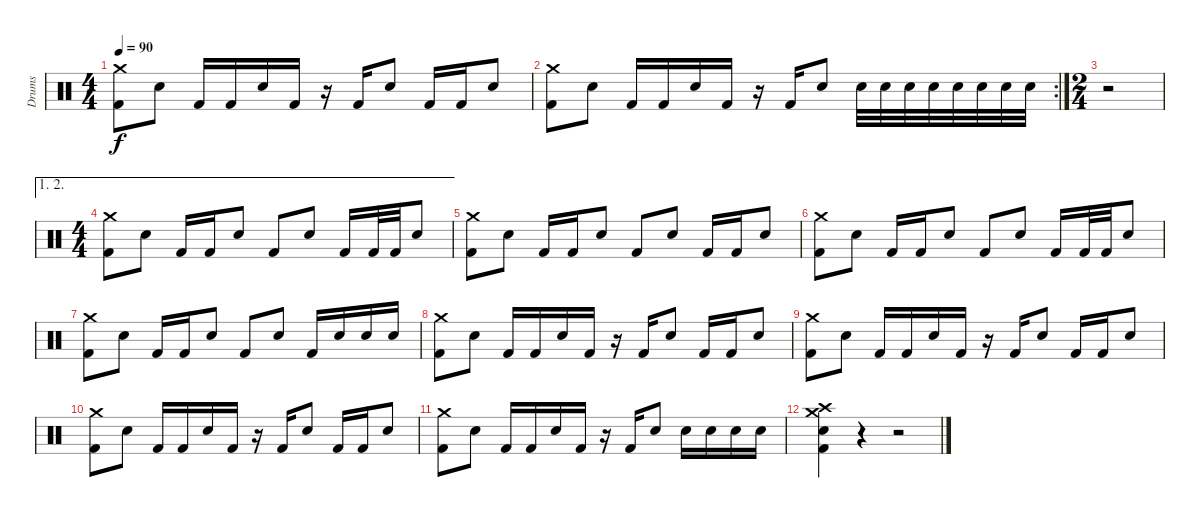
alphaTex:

\track ("Drums" "Drums") {instrument percussion}
\staff {score}
\articulation defaults
\ts (4 4)
\tempo 90
\clef neutral
\ks c
("Crash medium (hit)" "Kick (hit) 2").8{dy f} "Snare (hit) 2".8 "Kick (hit) 2".16 "Kick (hit) 2".16 "Snare (hit) 2".16 "Kick (hit) 2".16 r.16 "Kick (hit) 2".16 "Snare (hit) 2".8 "Kick (hit) 2".16 "Kick (hit) 2".16 "Snare (hit) 2".8 |
\rc 2
("Crash medium (hit)" "Kick (hit) 2").8 "Snare (hit) 2".8 "Kick (hit) 2".16 "Kick (hit) 2".16 "Snare (hit) 2".16 "Kick (hit) 2".16 r.16 "Kick (hit) 2".16 "Snare (hit) 2".8 "Snare (hit) 2".32 "Snare (hit) 2".32 "Snare (hit) 2".32 "Snare (hit) 2".32 "Snare (hit) 2".32 "Snare (hit) 2".32 "Snare (hit) 2".32 "Snare (hit) 2".32 |
\ts (2 4)
r.2 |
\ae (1 2)
\ts (4 4)
("Crash medium (hit)" "Kick (hit) 2").8 "Snare (hit) 2".8 "Kick (hit) 2".16 "Kick (hit) 2".16 "Snare (hit) 2".8 "Kick (hit) 2".8 "Snare (hit) 2".8 "Kick (hit) 2".16 "Kick (hit) 2".32 "Kick (hit) 2".32 "Snare (hit) 2".8 |
("Crash medium (hit)" "Kick (hit) 2").8 "Snare (hit) 2".8 "Kick (hit) 2".16 "Kick (hit) 2".16 "Snare (hit) 2".8 "Kick (hit) 2".8 "Snare (hit) 2".8 "Kick (hit) 2".16 "Kick (hit) 2".16 "Snare (hit) 2".8 |
("Crash medium (hit)" "Kick (hit) 2").8 "Snare (hit) 2".8 "Kick (hit) 2".16 "Kick (hit) 2".16 "Snare (hit) 2".8 "Kick (hit) 2".8 "Snare (hit) 2".8 "Kick (hit) 2".16 "Kick (hit) 2".32 "Kick (hit) 2".32 "Snare (hit) 2".8 |
("Crash medium (hit)" "Kick (hit) 2").8 "Snare (hit) 2".8 "Kick (hit) 2".16 "Kick (hit) 2".16 "Snare (hit) 2".8 "Kick (hit) 2".8 "Snare (hit) 2".8 "Kick (hit) 2".16 "Snare (hit) 2".16 "Snare (hit) 2".16 "Snare (hit) 2".16 |
("Crash medium (hit)" "Kick (hit) 2").8 "Snare (hit) 2".8 "Kick (hit) 2".16 "Kick (hit) 2".16 "Snare (hit) 2".16 "Kick (hit) 2".16 r.16 "Kick (hit) 2".16 "Snare (hit) 2".8 "Kick (hit) 2".16 "Kick (hit) 2".16 "Snare (hit) 2".8 |
("Crash medium (hit)" "Kick (hit) 2").8 "Snare (hit) 2".8 "Kick (hit) 2".16 "Kick (hit) 2".16 "Snare (hit) 2".16 "Kick (hit) 2".16 r.16 "Kick (hit) 2".16 "Snare (hit) 2".8 "Kick (hit) 2".16 "Kick (hit) 2".16 "Snare (hit) 2".8 |
("Crash medium (hit)" "Kick (hit) 2").8 "Snare (hit) 2".8 "Kick (hit) 2".16 "Kick (hit) 2".16 "Snare (hit) 2".16 "Kick (hit) 2".16 r.16 "Kick (hit) 2".16 "Snare (hit) 2".8 "Kick (hit) 2".16 "Kick (hit) 2".16 "Snare (hit) 2".8 |
("Crash medium (hit)" "Kick (hit) 2").8 "Snare (hit) 2".8 "Kick (hit) 2".16 "Kick (hit) 2".16 "Snare (hit) 2".16 "Kick (hit) 2".16 r.16 "Kick (hit) 2".16 "Snare (hit) 2".8 "Snare (hit) 2".16 "Snare (hit) 2".16 "Snare (hit) 2".16 "Snare (hit) 2".16 |
("Crash medium (hit)" "Crash high (hit)" "Snare (hit) 2" "Kick (hit) 2").4 r.4 r.2
